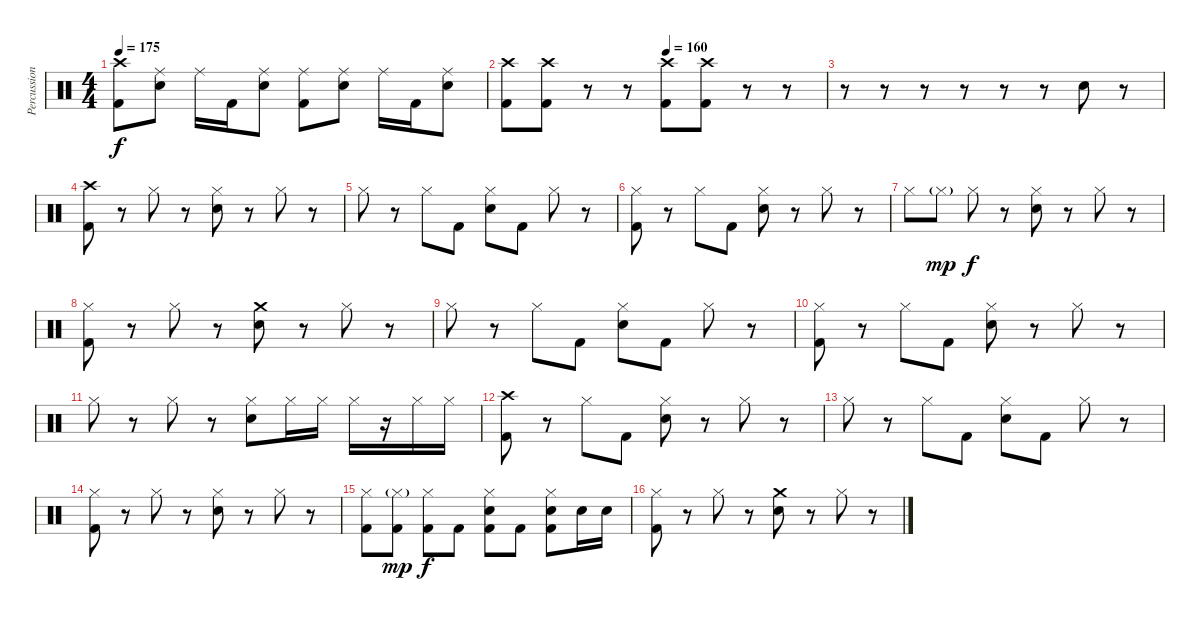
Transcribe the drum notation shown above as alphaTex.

\track ("Percussion" "Percussion") {instrument percussion}
\staff {score}
\articulation defaults
\ts (4 4)
\tempo 175
\clef neutral
\ks c
("Crash high (hit)" "Kick (hit) 2").8{dy f} ("Ride (middle)" "Snare (hit) 2").8 "Ride (middle)".16 "Kick (hit) 2".16 ("Ride (middle)" "Snare (hit) 2").8 ("Ride (middle)" "Kick (hit) 2").8 ("Ride (middle)" "Snare (hit) 2").8 "Ride (middle)".16 "Kick (hit) 2".16 ("Ride (middle)" "Snare (hit) 2").8 |
\tempo (160 0.5)
("Crash high (hit)" "Kick (hit) 2").8 ("Crash high (hit)" "Kick (hit) 2").8 r.8 r.8 ("Crash high (hit)" "Kick (hit) 2").8 ("Crash high (hit)" "Kick (hit) 2").8 r.8 r.8 |
r.8 r.8 r.8 r.8 r.8 r.8 "Snare (hit) 2".8 r.8 |
("Crash high (hit)" "Kick (hit) 2").8 r.8 "Hi-Hat (closed)".8 r.8 ("Hi-Hat (closed)" "Snare (hit) 2").8 r.8 "Hi-Hat (closed)".8 r.8 |
"Hi-Hat (closed)".8 r.8 "Hi-Hat (closed)".8 "Kick (hit) 2".8 ("Hi-Hat (closed)" "Snare (hit) 2").8 "Kick (hit) 2".8 "Hi-Hat (closed)".8 r.8 |
("Hi-Hat (closed)" "Kick (hit) 2").8 r.8 "Hi-Hat (closed)".8 "Kick (hit) 2".8 ("Hi-Hat (closed)" "Snare (hit) 2").8 r.8 "Hi-Hat (closed)".8 r.8 |
"Hi-Hat (closed)".8 "Hi-Hat (closed)"{g}.8{dy mp} "Hi-Hat (closed)".8{dy f} r.8 ("Hi-Hat (closed)" "Snare (hit) 2").8 r.8 "Hi-Hat (closed)".8 r.8 |
("Hi-Hat (closed)" "Kick (hit) 2").8 r.8 "Hi-Hat (closed)".8 r.8 ("Crash medium (hit)" "Snare (hit) 2").8 r.8 "Hi-Hat (closed)".8 r.8 |
"Hi-Hat (closed)".8 r.8 "Hi-Hat (closed)".8 "Kick (hit) 2".8 ("Hi-Hat (closed)" "Snare (hit) 2").8 "Kick (hit) 2".8 "Hi-Hat (closed)".8 r.8 |
("Hi-Hat (closed)" "Kick (hit) 2").8 r.8 "Hi-Hat (closed)".8 "Kick (hit) 2".8 ("Hi-Hat (closed)" "Snare (hit) 2").8 r.8 "Hi-Hat (closed)".8 r.8 |
"Hi-Hat (closed)".8 r.8 "Hi-Hat (closed)".8 r.8 ("Hi-Hat (closed)" "Snare (hit) 2").8 "Hi-Hat (closed)".16 "Hi-Hat (closed)".16 "Hi-Hat (closed)".16 r.16 "Hi-Hat (closed)".16 "Hi-Hat (closed)".16 |
("Crash high (hit)" "Kick (hit) 2").8 r.8 "Hi-Hat (closed)".8 "Kick (hit) 2".8 ("Hi-Hat (closed)" "Snare (hit) 2").8 r.8 "Hi-Hat (closed)".8 r.8 |
"Hi-Hat (closed)".8 r.8 "Hi-Hat (closed)".8 "Kick (hit) 2".8 ("Hi-Hat (closed)" "Snare (hit) 2").8 "Kick (hit) 2".8 "Hi-Hat (closed)".8 r.8 |
("Hi-Hat (closed)" "Kick (hit) 2").8 r.8 "Hi-Hat (closed)".8 r.8 ("Hi-Hat (closed)" "Snare (hit) 2").8 r.8 "Hi-Hat (closed)".8 r.8 |
("Hi-Hat (closed)" "Kick (hit) 2").8 ("Hi-Hat (closed)"{g} "Kick (hit) 2").8{dy mp} ("Hi-Hat (closed)" "Kick (hit) 2").8{dy f} "Kick (hit) 2".8 ("Hi-Hat (closed)" "Snare (hit) 2" "Kick (hit) 2").8 "Kick (hit) 2".8 ("Hi-Hat (closed)" "Snare (hit) 2" "Kick (hit) 2").8 "Snare (hit) 2".16 "Snare (hit) 2".16 |
("Hi-Hat (closed)" "Kick (hit) 2").8 r.8 "Hi-Hat (closed)".8 r.8 ("Crash medium (hit)" "Snare (hit) 2").8 r.8 "Hi-Hat (closed)".8 r.8
